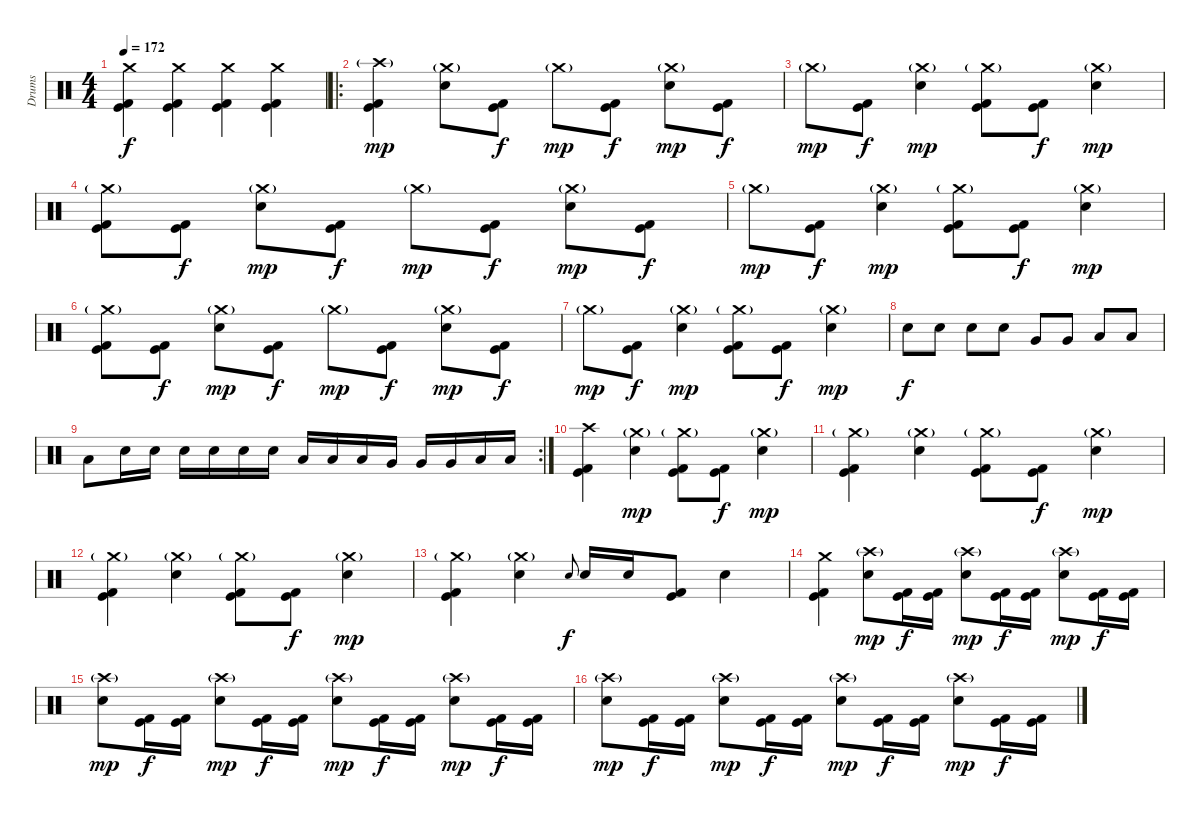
\track ("Drums" "Drums") {instrument percussion}
\staff {score}
\articulation defaults
\ts (4 4)
\tempo 172
\clef neutral
\ks c
("Crash medium (hit)" "Kick (hit)" "Kick (hit) 2").4{dy f} ("Crash medium (hit)" "Kick (hit)" "Kick (hit) 2").4 ("Crash medium (hit)" "Kick (hit)" "Kick (hit) 2").4 ("Crash medium (hit)" "Kick (hit)" "Kick (hit) 2").4 |
\ro
("Crash high (hit)"{g} "Kick (hit)" "Kick (hit) 2").4{dy mp} ("Crash medium (hit)"{g} "Electric Snare (hit)").8 ("Kick (hit)" "Kick (hit) 2").8{dy f} "Crash medium (hit)"{g}.8{dy mp} ("Kick (hit)" "Kick (hit) 2").8{dy f} ("Crash medium (hit)"{g} "Electric Snare (hit)").8{dy mp} ("Kick (hit)" "Kick (hit) 2").8{dy f} |
"Crash medium (hit)"{g}.8{dy mp} ("Kick (hit)" "Kick (hit) 2").8{dy f} ("Crash medium (hit)"{g} "Electric Snare (hit)").4{dy mp} ("Crash medium (hit)"{g} "Kick (hit)" "Kick (hit) 2").8 ("Kick (hit)" "Kick (hit) 2").8{dy f} ("Crash medium (hit)"{g} "Electric Snare (hit)").4{dy mp} |
("Crash medium (hit)"{g} "Kick (hit)" "Kick (hit) 2").8 ("Kick (hit)" "Kick (hit) 2").8{dy f} ("Crash medium (hit)"{g} "Electric Snare (hit)").8{dy mp} ("Kick (hit)" "Kick (hit) 2").8{dy f} "Crash medium (hit)"{g}.8{dy mp} ("Kick (hit)" "Kick (hit) 2").8{dy f} ("Crash medium (hit)"{g} "Electric Snare (hit)").8{dy mp} ("Kick (hit)" "Kick (hit) 2").8{dy f} |
"Crash medium (hit)"{g}.8{dy mp} ("Kick (hit)" "Kick (hit) 2").8{dy f} ("Crash medium (hit)"{g} "Electric Snare (hit)").4{dy mp} ("Crash medium (hit)"{g} "Kick (hit)" "Kick (hit) 2").8 ("Kick (hit)" "Kick (hit) 2").8{dy f} ("Crash medium (hit)"{g} "Electric Snare (hit)").4{dy mp} |
("Crash medium (hit)"{g} "Kick (hit)" "Kick (hit) 2").8 ("Kick (hit)" "Kick (hit) 2").8{dy f} ("Crash medium (hit)"{g} "Electric Snare (hit)").8{dy mp} ("Kick (hit)" "Kick (hit) 2").8{dy f} "Crash medium (hit)"{g}.8{dy mp} ("Kick (hit)" "Kick (hit) 2").8{dy f} ("Crash medium (hit)"{g} "Electric Snare (hit)").8{dy mp} ("Kick (hit)" "Kick (hit) 2").8{dy f} |
"Crash medium (hit)"{g}.8{dy mp} ("Kick (hit)" "Kick (hit) 2").8{dy f} ("Crash medium (hit)"{g} "Electric Snare (hit)").4{dy mp} ("Crash medium (hit)"{g} "Kick (hit)" "Kick (hit) 2").8 ("Kick (hit)" "Kick (hit) 2").8{dy f} ("Crash medium (hit)"{g} "Electric Snare (hit)").4{dy mp} |
"Electric Snare (hit)".8{dy f} "Electric Snare (hit)".8 "Electric Snare (hit)".8 "Electric Snare (hit)".8 "Very Low Tom (hit)".8 "Very Low Tom (hit)".8 "Low Floor Tom (hit)".8 "Low Floor Tom (hit)".8 |
\rc 2 "Low Tom (hit)".8 "Electric Snare (hit)".16 "Electric Snare (hit)".16 "Electric Snare (hit)".16 "Electric Snare (hit)".16 "Electric Snare (hit)".16 "Electric Snare (hit)".16 "Low Tom (hit)".16 "Low Tom (hit)".16 "Low Tom (hit)".16 "Very Low Tom (hit)".16 "Very Low Tom (hit)".16 "Very Low Tom (hit)".16 "Low Floor Tom (hit)".16 "Low Floor Tom (hit)".16
|
("Crash high (hit)" "Kick (hit)" "Kick (hit) 2").4 ("Crash medium (hit)"{g} "Electric Snare (hit)").4{dy mp} ("Crash medium (hit)"{g} "Kick (hit)" "Kick (hit) 2").8 ("Kick (hit)" "Kick (hit) 2").8{dy f} ("Crash medium (hit)"{g} "Electric Snare (hit)").4{dy mp} |
("Crash medium (hit)"{g} "Kick (hit)" "Kick (hit) 2").4 ("Crash medium (hit)"{g} "Electric Snare (hit)").4 ("Crash medium (hit)"{g} "Kick (hit)" "Kick (hit) 2").8 ("Kick (hit)" "Kick (hit) 2").8{dy f} ("Crash medium (hit)"{g} "Electric Snare (hit)").4{dy mp} |
("Crash medium (hit)"{g} "Kick (hit)" "Kick (hit) 2").4 ("Crash medium (hit)"{g} "Electric Snare (hit)").4 ("Crash medium (hit)"{g} "Kick (hit)" "Kick (hit) 2").8 ("Kick (hit)" "Kick (hit) 2").8{dy f} ("Crash medium (hit)"{g} "Electric Snare (hit)").4{dy mp} |
("Crash medium (hit)"{g} "Kick (hit)" "Kick (hit) 2").4 ("Crash medium (hit)"{g} "Electric Snare (hit)").4 "Electric Snare (hit)".8{gr onbeat dy f} "Electric Snare (hit)".16 "Electric Snare (hit)".16 ("Kick (hit)" "Kick (hit) 2").8 "Electric Snare (hit)".4 |
("Crash medium (hit)" "Kick (hit)" "Kick (hit) 2").4 ("Crash high (hit)"{g} "Electric Snare (hit)").8{dy mp} ("Kick (hit)" "Kick (hit) 2").16{dy f} ("Kick (hit)" "Kick (hit) 2").16 ("Crash high (hit)"{g} "Electric Snare (hit)").8{dy mp} ("Kick (hit)" "Kick (hit) 2").16{dy f} ("Kick (hit)" "Kick (hit) 2").16 ("Crash high (hit)"{g} "Electric Snare (hit)").8{dy mp} ("Kick (hit)" "Kick (hit) 2").16{dy f} ("Kick (hit)" "Kick (hit) 2").16 |
("Crash high (hit)"{g} "Electric Snare (hit)").8{dy mp} ("Kick (hit)" "Kick (hit) 2").16{dy f} ("Kick (hit)" "Kick (hit) 2").16 ("Crash high (hit)"{g} "Electric Snare (hit)").8{dy mp} ("Kick (hit)" "Kick (hit) 2").16{dy f} ("Kick (hit)" "Kick (hit) 2").16 ("Crash high (hit)"{g} "Electric Snare (hit)").8{dy mp} ("Kick (hit)" "Kick (hit) 2").16{dy f} ("Kick (hit)" "Kick (hit) 2").16 ("Crash high (hit)"{g} "Electric Snare (hit)").8{dy mp} ("Kick (hit)" "Kick (hit) 2").16{dy f} ("Kick (hit)" "Kick (hit) 2").16 |
("Crash high (hit)"{g} "Electric Snare (hit)").8{dy mp} ("Kick (hit)" "Kick (hit) 2").16{dy f} ("Kick (hit)" "Kick (hit) 2").16 ("Crash high (hit)"{g} "Electric Snare (hit)").8{dy mp} ("Kick (hit)" "Kick (hit) 2").16{dy f} ("Kick (hit)" "Kick (hit) 2").16 ("Crash high (hit)"{g} "Electric Snare (hit)").8{dy mp} ("Kick (hit)" "Kick (hit) 2").16{dy f} ("Kick (hit)" "Kick (hit) 2").16 ("Crash high (hit)"{g} "Electric Snare (hit)").8{dy mp} ("Kick (hit)" "Kick (hit) 2").16{dy f} ("Kick (hit)" "Kick (hit) 2").16
